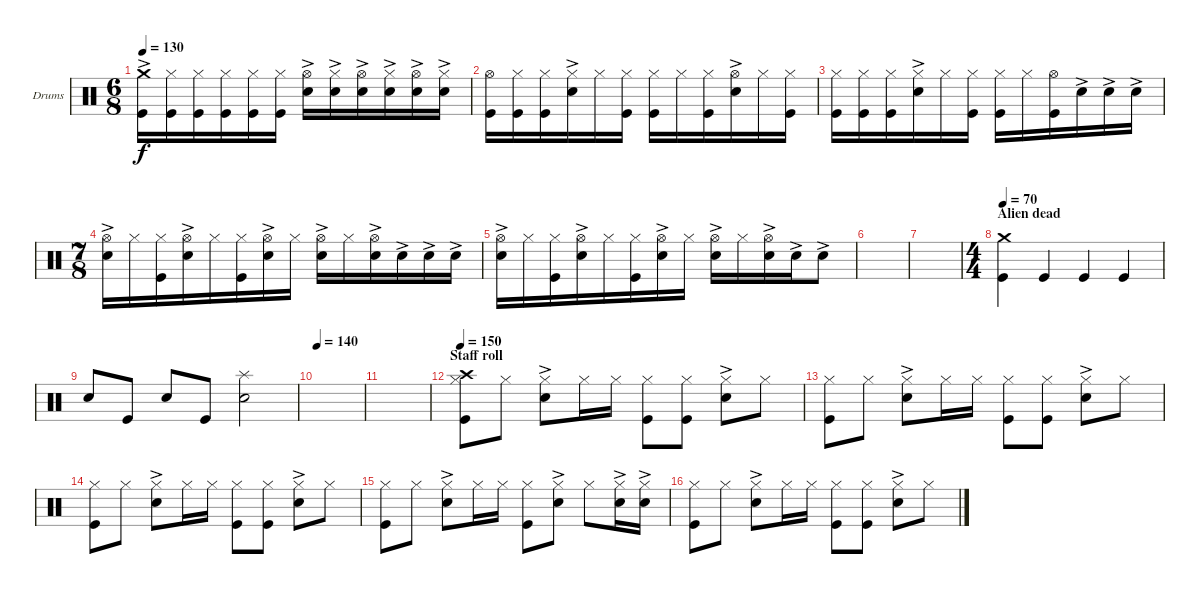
\defaultSystemsLayout 4
\bracketExtendMode groupsimilarinstruments
\firstSystemTrackNameOrientation horizontal
\otherSystemsTrackNameOrientation horizontal
\track ("Drumkit" "Drums") {instrument percussion}
\staff {score}
\articulation defaults
\ts (6 8)
\tempo 130
\clef neutral
\ks c
("Kick (hit)" "Crash medium (hit)"{ac}).16{dy f} ("Kick (hit)" "Hi-Hat (closed)").16 ("Kick (hit)" "Hi-Hat (closed)").16 ("Kick (hit)" "Hi-Hat (closed)").16 ("Kick (hit)" "Hi-Hat (closed)").16 ("Kick (hit)" "Hi-Hat (closed)").16 ("Hi-Hat (open)" "Snare (hit) 2"{ac}).16 ("Hi-Hat (closed)" "Snare (hit) 2"{ac}).16 ("Hi-Hat (open)" "Snare (hit) 2"{ac}).16 ("Hi-Hat (closed)" "Snare (hit) 2"{ac}).16 ("Hi-Hat (open)" "Snare (hit) 2"{ac}).16 ("Hi-Hat (closed)" "Snare (hit) 2"{ac}).16 |
("Hi-Hat (open)" "Kick (hit)").16 ("Kick (hit)" "Hi-Hat (closed)").16 ("Kick (hit)" "Hi-Hat (closed)").16 ("Snare (hit) 2"{ac} "Hi-Hat (closed)").16 "Hi-Hat (closed)".16 ("Kick (hit)" "Hi-Hat (closed)").16 ("Kick (hit)" "Hi-Hat (closed)").16 "Hi-Hat (closed)".16 ("Kick (hit)" "Hi-Hat (closed)").16 ("Snare (hit) 2"{ac} "Hi-Hat (open)").16 "Hi-Hat (closed)".16 ("Kick (hit)" "Hi-Hat (closed)").16 |
("Hi-Hat (closed)" "Kick (hit)").16 ("Kick (hit)" "Hi-Hat (closed)").16 ("Kick (hit)" "Hi-Hat (closed)").16 ("Snare (hit) 2"{ac} "Hi-Hat (closed)").16 "Hi-Hat (closed)".16 ("Kick (hit)" "Hi-Hat (closed)").16 ("Kick (hit)" "Hi-Hat (closed)").16 "Hi-Hat (closed)".16 ("Kick (hit)" "Hi-Hat (open)").16 "Snare (hit) 2"{ac}.16 "Snare (hit) 2"{ac}.16 "Snare (hit) 2"{ac}.16 |
\ts (7 8)
("Snare (hit) 2"{ac} "Hi-Hat (open)").16 "Hi-Hat (closed)".16 ("Kick (hit)" "Hi-Hat (closed)").16 ("Snare (hit) 2"{ac} "Hi-Hat (open)").16 "Hi-Hat (closed)".16 ("Kick (hit)" "Hi-Hat (closed)").16 ("Snare (hit) 2"{ac} "Hi-Hat (open)").16 "Hi-Hat (closed)".16 ("Snare (hit) 2"{ac} "Hi-Hat (open)").16 "Hi-Hat (closed)".16 ("Snare (hit) 2"{ac} "Hi-Hat (open)").16 "Snare (hit) 2"{ac}.16 "Snare (hit) 2"{ac}.16 "Snare (hit) 2"{ac}.16 |
("Snare (hit) 2"{ac} "Hi-Hat (open)").16 "Hi-Hat (closed)".16 ("Kick (hit)" "Hi-Hat (closed)").16 ("Snare (hit) 2"{ac} "Hi-Hat (open)").16 "Hi-Hat (closed)".16 ("Kick (hit)" "Hi-Hat (closed)").16 ("Snare (hit) 2"{ac} "Hi-Hat (open)").16 "Hi-Hat (closed)".16 ("Snare (hit) 2"{ac} "Hi-Hat (open)").16 "Hi-Hat (closed)".16 ("Snare (hit) 2"{ac} "Hi-Hat (open)").16 "Snare (hit) 2"{ac}.16 "Snare (hit) 2"{ac}.8 |
|
|
\ts (4 4)
\section ("" "Alien dead")
\tempo 70
("Kick (hit)" "Crash medium (hit)").4 "Kick (hit)".4 "Kick (hit)".4 "Kick (hit)".4 |
"Snare (hit) 2".8 "Kick (hit)".8 "Snare (hit) 2".8 "Kick (hit)".8 ("Snare (hit) 2" "Splash (hit)").2 |
\tempo 140
|
|
\section ("" "Staff roll")
\tempo 150
("Kick (hit)" "Hi-Hat (closed)" "Crash high (hit)").8 "Hi-Hat (closed)".8 ("Snare (hit) 2"{ac} "Hi-Hat (closed)").8 "Hi-Hat (closed)".16 "Hi-Hat (closed)".16 ("Kick (hit)" "Hi-Hat (closed)").8 ("Kick (hit)" "Hi-Hat (closed)").8 ("Snare (hit) 2"{ac} "Hi-Hat (closed)").8 "Hi-Hat (closed)".8 |
("Kick (hit)" "Hi-Hat (closed)").8 "Hi-Hat (closed)".8 ("Snare (hit) 2"{ac} "Hi-Hat (closed)").8 "Hi-Hat (closed)".16 "Hi-Hat (closed)".16 ("Kick (hit)" "Hi-Hat (closed)").8 ("Kick (hit)" "Hi-Hat (closed)").8 ("Snare (hit) 2"{ac} "Hi-Hat (closed)").8 "Hi-Hat (closed)".8 |
("Kick (hit)" "Hi-Hat (closed)").8 "Hi-Hat (closed)".8 ("Snare (hit) 2"{ac} "Hi-Hat (closed)").8 "Hi-Hat (closed)".16 "Hi-Hat (closed)".16 ("Kick (hit)" "Hi-Hat (closed)").8 ("Kick (hit)" "Hi-Hat (closed)").8 ("Snare (hit) 2"{ac} "Hi-Hat (closed)").8 "Hi-Hat (closed)".8 |
("Kick (hit)" "Hi-Hat (closed)").8 "Hi-Hat (closed)".8 ("Snare (hit) 2"{ac} "Hi-Hat (closed)").8 "Hi-Hat (closed)".16 "Hi-Hat (closed)".16 ("Kick (hit)" "Hi-Hat (closed)").8 ("Snare (hit) 2"{ac} "Hi-Hat (closed)").8 "Hi-Hat (closed)".8 ("Snare (hit) 2"{ac} "Hi-Hat (closed)").16 ("Snare (hit) 2"{ac} "Hi-Hat (closed)").16 |
("Kick (hit)" "Hi-Hat (closed)").8 "Hi-Hat (closed)".8 ("Snare (hit) 2"{ac} "Hi-Hat (closed)").8 "Hi-Hat (closed)".16 "Hi-Hat (closed)".16 ("Kick (hit)" "Hi-Hat (closed)").8 ("Kick (hit)" "Hi-Hat (closed)").8 ("Snare (hit) 2"{ac} "Hi-Hat (closed)").8 "Hi-Hat (closed)".8
